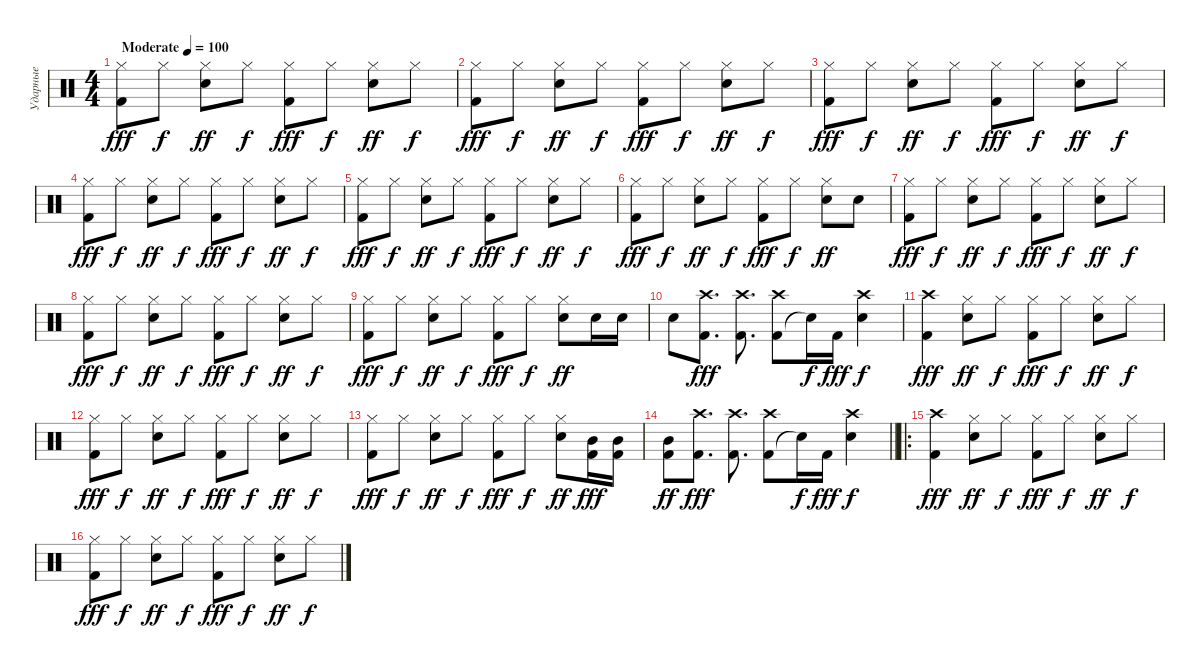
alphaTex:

\track ("Ударные" "Ударные") {instrument percussion}
\staff
\articulation defaults
\ts (4 4)
\tempo (100 "Moderate")
\clef neutral
\ks c
("Kick (hit) 2" "Hi-Hat (closed)").8{dy fff} "Hi-Hat (closed)".8{dy f} ("Snare (hit) 2" "Hi-Hat (closed)").8{dy ff} "Hi-Hat (closed)".8{dy f} ("Kick (hit) 2" "Hi-Hat (closed)").8{dy fff} "Hi-Hat (closed)".8{dy f} ("Snare (hit) 2" "Hi-Hat (closed)").8{dy ff} "Hi-Hat (closed)".8{dy f} |
("Kick (hit) 2" "Hi-Hat (closed)").8{dy fff} "Hi-Hat (closed)".8{dy f} ("Snare (hit) 2" "Hi-Hat (closed)").8{dy ff} "Hi-Hat (closed)".8{dy f} ("Kick (hit) 2" "Hi-Hat (closed)").8{dy fff} "Hi-Hat (closed)".8{dy f} ("Snare (hit) 2" "Hi-Hat (closed)").8{dy ff} "Hi-Hat (closed)".8{dy f} |
("Kick (hit) 2" "Hi-Hat (closed)").8{dy fff} "Hi-Hat (closed)".8{dy f} ("Snare (hit) 2" "Hi-Hat (closed)").8{dy ff} "Hi-Hat (closed)".8{dy f} ("Kick (hit) 2" "Hi-Hat (closed)").8{dy fff} "Hi-Hat (closed)".8{dy f} ("Snare (hit) 2" "Hi-Hat (closed)").8{dy ff} "Hi-Hat (closed)".8{dy f} |
("Kick (hit) 2" "Hi-Hat (closed)").8{dy fff} "Hi-Hat (closed)".8{dy f} ("Snare (hit) 2" "Hi-Hat (closed)").8{dy ff} "Hi-Hat (closed)".8{dy f} ("Kick (hit) 2" "Hi-Hat (closed)").8{dy fff} "Hi-Hat (closed)".8{dy f} ("Snare (hit) 2" "Hi-Hat (closed)").8{dy ff} "Hi-Hat (closed)".8{dy f} |
("Kick (hit) 2" "Hi-Hat (closed)").8{dy fff} "Hi-Hat (closed)".8{dy f} ("Snare (hit) 2" "Hi-Hat (closed)").8{dy ff} "Hi-Hat (closed)".8{dy f} ("Kick (hit) 2" "Hi-Hat (closed)").8{dy fff} "Hi-Hat (closed)".8{dy f} ("Snare (hit) 2" "Hi-Hat (closed)").8{dy ff} "Hi-Hat (closed)".8{dy f} |
("Kick (hit) 2" "Hi-Hat (closed)").8{dy fff} "Hi-Hat (closed)".8{dy f} ("Snare (hit) 2" "Hi-Hat (closed)").8{dy ff} "Hi-Hat (closed)".8{dy f} ("Kick (hit) 2" "Hi-Hat (closed)").8{dy fff} "Hi-Hat (closed)".8{dy f} ("Snare (hit) 2" "Hi-Hat (closed)").8{dy ff} "Snare (hit) 2".8 |
("Kick (hit) 2" "Hi-Hat (closed)").8{dy fff} "Hi-Hat (closed)".8{dy f} ("Snare (hit) 2" "Hi-Hat (closed)").8{dy ff} "Hi-Hat (closed)".8{dy f} ("Kick (hit) 2" "Hi-Hat (closed)").8{dy fff} "Hi-Hat (closed)".8{dy f} ("Snare (hit) 2" "Hi-Hat (closed)").8{dy ff} "Hi-Hat (closed)".8{dy f} |
("Kick (hit) 2" "Hi-Hat (closed)").8{dy fff} "Hi-Hat (closed)".8{dy f} ("Snare (hit) 2" "Hi-Hat (closed)").8{dy ff} "Hi-Hat (closed)".8{dy f} ("Kick (hit) 2" "Hi-Hat (closed)").8{dy fff} "Hi-Hat (closed)".8{dy f} ("Snare (hit) 2" "Hi-Hat (closed)").8{dy ff} "Hi-Hat (closed)".8{dy f} |
("Kick (hit) 2" "Hi-Hat (closed)").8{dy fff} "Hi-Hat (closed)".8{dy f} ("Snare (hit) 2" "Hi-Hat (closed)").8{dy ff} "Hi-Hat (closed)".8{dy f} ("Kick (hit) 2" "Hi-Hat (closed)").8{dy fff} "Hi-Hat (closed)".8{dy f} ("Snare (hit) 2" "Hi-Hat (closed)").8{dy ff} "Snare (hit) 2".16 "Snare (hit) 2".16 |
"Snare (hit) 2".8 ("Kick (hit) 2" "Crash high (hit)").8{d dy fff} ("Kick (hit) 2" "Crash high (hit)").8{d} ("Kick (hit) 2" "Crash high (hit)").8 "Snare (hit)"{t}.16{dy f} "Kick (hit) 2".16{dy fff} ("Snare (hit) 2" "Crash high (hit)").4{dy f} |
("Kick (hit) 2" "Crash high (hit)").4{dy fff} ("Snare (hit) 2" "Hi-Hat (closed)").8{dy ff} "Hi-Hat (closed)".8{dy f} ("Kick (hit) 2" "Hi-Hat (closed)").8{dy fff} "Hi-Hat (closed)".8{dy f} ("Snare (hit) 2" "Hi-Hat (closed)").8{dy ff} "Hi-Hat (closed)".8{dy f} |
("Kick (hit) 2" "Hi-Hat (closed)").8{dy fff} "Hi-Hat (closed)".8{dy f} ("Snare (hit) 2" "Hi-Hat (closed)").8{dy ff} "Hi-Hat (closed)".8{dy f} ("Kick (hit) 2" "Hi-Hat (closed)").8{dy fff} "Hi-Hat (closed)".8{dy f} ("Snare (hit) 2" "Hi-Hat (closed)").8{dy ff} "Hi-Hat (closed)".8{dy f} |
("Kick (hit) 2" "Hi-Hat (closed)").8{dy fff} "Hi-Hat (closed)".8{dy f} ("Snare (hit) 2" "Hi-Hat (closed)").8{dy ff} "Hi-Hat (closed)".8{dy f} ("Kick (hit) 2" "Hi-Hat (closed)").8{dy fff} "Hi-Hat (closed)".8{dy f} ("Snare (hit) 2" "Hi-Hat (closed)").8{dy ff} ("Kick (hit) 2" "Mid Tom (hit)").16{dy fff} ("Kick (hit) 2" "Mid Tom (hit)").16 |
\barLineRight lightlight
("Kick (hit) 2" "Mid Tom (hit)").8{dy ff} ("Kick (hit) 2" "Crash high (hit)").8{d dy fff} ("Kick (hit) 2" "Crash high (hit)").8{d} ("Kick (hit) 2" "Crash high (hit)").8 "Snare (hit)"{t}.16{dy f} "Kick (hit) 2".16{dy fff} ("Snare (hit) 2" "Crash high (hit)").4{dy f} |
\ro
("Kick (hit) 2" "Crash high (hit)").4{dy fff} ("Snare (hit) 2" "Hi-Hat (closed)").8{dy ff} "Hi-Hat (closed)".8{dy f} ("Kick (hit) 2" "Hi-Hat (closed)").8{dy fff} "Hi-Hat (closed)".8{dy f} ("Snare (hit) 2" "Hi-Hat (closed)").8{dy ff} "Hi-Hat (closed)".8{dy f} |
("Kick (hit) 2" "Hi-Hat (closed)").8{dy fff} "Hi-Hat (closed)".8{dy f} ("Snare (hit) 2" "Hi-Hat (closed)").8{dy ff} "Hi-Hat (closed)".8{dy f} ("Kick (hit) 2" "Hi-Hat (closed)").8{dy fff} "Hi-Hat (closed)".8{dy f} ("Snare (hit) 2" "Hi-Hat (closed)").8{dy ff} "Hi-Hat (closed)".8{dy f}
